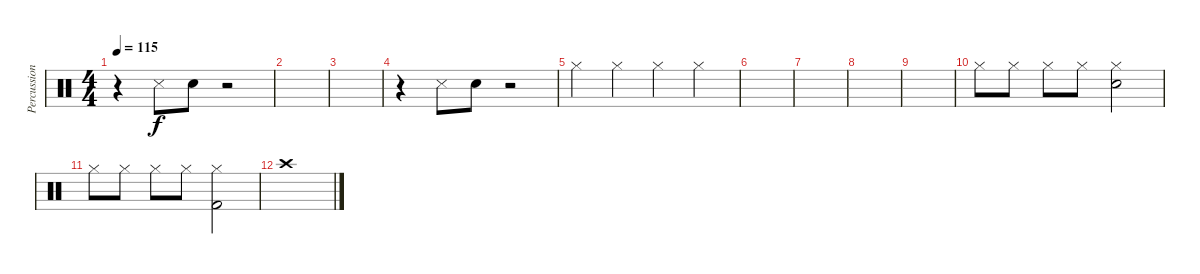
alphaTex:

\track ("Percussions" "Percussion") {instrument percussion}
\staff {score}
\articulation defaults
\ts (4 4)
\tempo 115
\clef neutral
\ks c
r.4{dy f} "Snare (side stick) 3".8 "Snare (hit) 2".8 r.2 |
|
|
r.4 "Snare (side stick) 3".8 "Snare (hit) 2".8 r.2 |
"Hi-Hat (closed)".4 "Hi-Hat (closed)".4 "Hi-Hat (closed)".4 "Hi-Hat (closed)".4 |
|
|
|
|
"Hi-Hat (closed)".8 "Hi-Hat (closed)".8 "Hi-Hat (closed)".8 "Hi-Hat (closed)".8 ("Hi-Hat (closed)" "Snare (hit) 2").2 |
"Hi-Hat (closed)".8 "Hi-Hat (closed)".8 "Hi-Hat (closed)".8 "Hi-Hat (closed)".8 ("Hi-Hat (closed)" "Kick (hit) 2").2 |
"Crash high (hit)".1
